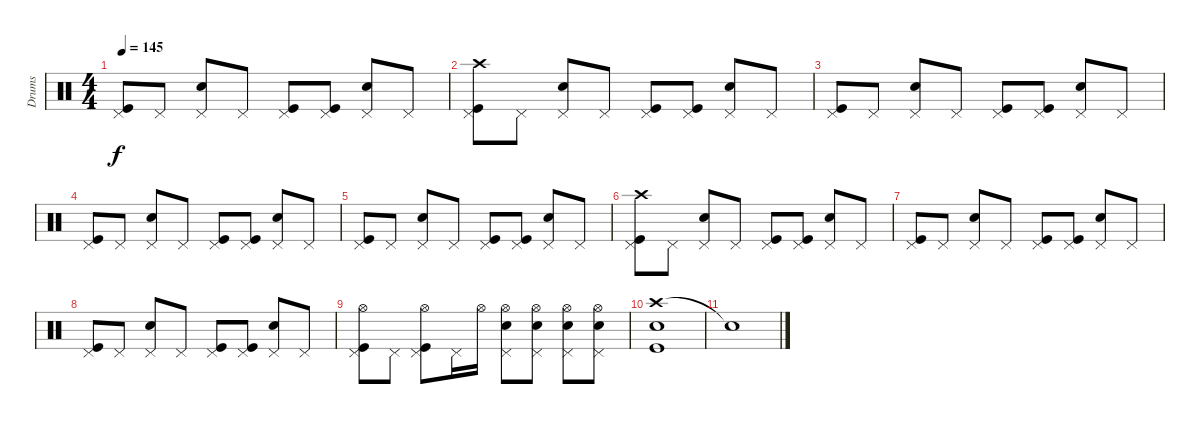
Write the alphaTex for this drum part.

\track ("Drums" "Drums") {instrument percussion}
\staff {score}
\articulation defaults
\ts (4 4)
\tempo 145
\clef neutral
\ks c
("Pedal Hi-Hat (hit)" "Kick (hit)").8{dy f} "Pedal Hi-Hat (hit)".8 ("Pedal Hi-Hat (hit)" "Snare (hit) 2").8 "Pedal Hi-Hat (hit)".8 ("Pedal Hi-Hat (hit)" "Kick (hit)").8 ("Pedal Hi-Hat (hit)" "Kick (hit)").8 ("Pedal Hi-Hat (hit)" "Snare (hit) 2").8 "Pedal Hi-Hat (hit)".8 |
("Crash high (hit)" "Pedal Hi-Hat (hit)" "Kick (hit)").8 "Pedal Hi-Hat (hit)".8 ("Pedal Hi-Hat (hit)" "Snare (hit) 2").8 "Pedal Hi-Hat (hit)".8 ("Pedal Hi-Hat (hit)" "Kick (hit)").8 ("Pedal Hi-Hat (hit)" "Kick (hit)").8 ("Pedal Hi-Hat (hit)" "Snare (hit) 2").8 "Pedal Hi-Hat (hit)".8 |
("Pedal Hi-Hat (hit)" "Kick (hit)").8 "Pedal Hi-Hat (hit)".8 ("Pedal Hi-Hat (hit)" "Snare (hit) 2").8 "Pedal Hi-Hat (hit)".8 ("Pedal Hi-Hat (hit)" "Kick (hit)").8 ("Pedal Hi-Hat (hit)" "Kick (hit)").8 ("Pedal Hi-Hat (hit)" "Snare (hit) 2").8 "Pedal Hi-Hat (hit)".8 |
("Pedal Hi-Hat (hit)" "Kick (hit)").8 "Pedal Hi-Hat (hit)".8 ("Pedal Hi-Hat (hit)" "Snare (hit) 2").8 "Pedal Hi-Hat (hit)".8 ("Pedal Hi-Hat (hit)" "Kick (hit)").8 ("Pedal Hi-Hat (hit)" "Kick (hit)").8 ("Pedal Hi-Hat (hit)" "Snare (hit) 2").8 "Pedal Hi-Hat (hit)".8 |
("Pedal Hi-Hat (hit)" "Kick (hit)").8 "Pedal Hi-Hat (hit)".8 ("Pedal Hi-Hat (hit)" "Snare (hit) 2").8 "Pedal Hi-Hat (hit)".8 ("Pedal Hi-Hat (hit)" "Kick (hit)").8 ("Pedal Hi-Hat (hit)" "Kick (hit)").8 ("Pedal Hi-Hat (hit)" "Snare (hit) 2").8 "Pedal Hi-Hat (hit)".8 |
("Crash high (hit)" "Pedal Hi-Hat (hit)" "Kick (hit)").8 "Pedal Hi-Hat (hit)".8 ("Pedal Hi-Hat (hit)" "Snare (hit) 2").8 "Pedal Hi-Hat (hit)".8 ("Pedal Hi-Hat (hit)" "Kick (hit)").8 ("Pedal Hi-Hat (hit)" "Kick (hit)").8 ("Pedal Hi-Hat (hit)" "Snare (hit) 2").8 "Pedal Hi-Hat (hit)".8 |
("Pedal Hi-Hat (hit)" "Kick (hit)").8 "Pedal Hi-Hat (hit)".8 ("Pedal Hi-Hat (hit)" "Snare (hit) 2").8 "Pedal Hi-Hat (hit)".8 ("Pedal Hi-Hat (hit)" "Kick (hit)").8 ("Pedal Hi-Hat (hit)" "Kick (hit)").8 ("Pedal Hi-Hat (hit)" "Snare (hit) 2").8 "Pedal Hi-Hat (hit)".8 |
("Pedal Hi-Hat (hit)" "Kick (hit)").8 "Pedal Hi-Hat (hit)".8 ("Pedal Hi-Hat (hit)" "Snare (hit) 2").8 "Pedal Hi-Hat (hit)".8 ("Pedal Hi-Hat (hit)" "Kick (hit)").8 ("Pedal Hi-Hat (hit)" "Kick (hit)").8 ("Pedal Hi-Hat (hit)" "Snare (hit) 2").8 "Pedal Hi-Hat (hit)".8 |
("Pedal Hi-Hat (hit)" "Hi-Hat (open)" "Kick (hit)").8 "Pedal Hi-Hat (hit)".8 ("Pedal Hi-Hat (hit)" "Hi-Hat (open)" "Kick (hit)").8 "Pedal Hi-Hat (hit)".16 "Hi-Hat (open)".16 ("Pedal Hi-Hat (hit)" "Snare (hit) 2" "Hi-Hat (open)").8 ("Pedal Hi-Hat (hit)" "Snare (hit) 2" "Hi-Hat (open)").8 ("Pedal Hi-Hat (hit)" "Snare (hit) 2" "Hi-Hat (open)").8 ("Pedal Hi-Hat (hit)" "Snare (hit) 2" "Hi-Hat (open)").8 |
("Crash high (hit)" "Snare (hit) 2" "Kick (hit)").1 |
"Snare (hit)"{t}.1
